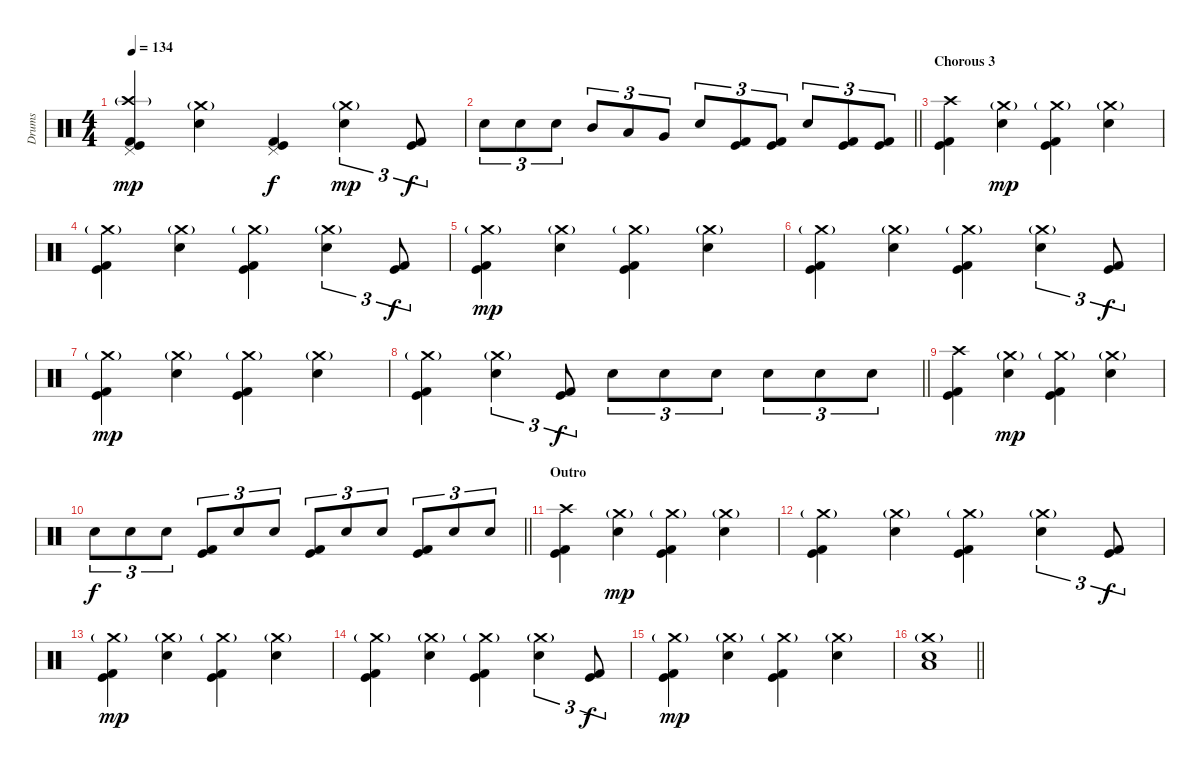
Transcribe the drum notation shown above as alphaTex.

\track ("Drums" "Drums") {instrument percussion}
\staff {score}
\articulation defaults
\ts (4 4)
\tempo 134
\clef neutral
\ks c
("Pedal Hi-Hat (hit)" "Crash high (hit)"{g} "Kick (hit)" "Kick (hit) 2").4{dy mp} ("Crash medium (hit)"{g} "Electric Snare (hit)").4 ("Pedal Hi-Hat (hit)" "Kick (hit)" "Kick (hit) 2").4{dy f} ("Crash medium (hit)"{g} "Electric Snare (hit)").4{tu (3 2) dy mp} ("Kick (hit)" "Kick (hit) 2").8{tu (3 2) dy f} |
\barLineRight lightlight "Electric Snare (hit)".8{tu (3 2)} "Electric Snare (hit)".8{tu (3 2)} "Electric Snare (hit)".8{tu (3 2)} "Mid Tom (hit)".8{tu (3 2)} "Low Tom (hit)".8{tu (3 2)} "Very Low Tom (hit)".8{tu (3 2)} "Electric Snare (hit)".8{tu (3 2)}
("Kick (hit)" "Kick (hit) 2").8{tu (3 2)} ("Kick (hit)" "Kick (hit) 2").8{tu (3 2)} "Electric Snare (hit)".8{tu (3 2)} ("Kick (hit)" "Kick (hit) 2").8{tu (3 2)} ("Kick (hit)" "Kick (hit) 2").8{tu (3 2)} |
\section ("" "Chorous 3")
("Crash high (hit)" "Kick (hit)" "Kick (hit) 2").4 ("Crash medium (hit)"{g} "Electric Snare (hit)").4{dy mp} ("Crash medium (hit)"{g} "Kick (hit)" "Kick (hit) 2").4 ("Crash medium (hit)"{g} "Electric Snare (hit)").4 |
("Crash medium (hit)"{g} "Kick (hit)" "Kick (hit) 2").4 ("Crash medium (hit)"{g} "Electric Snare (hit)").4 ("Crash medium (hit)"{g} "Kick (hit)" "Kick (hit) 2").4 ("Crash medium (hit)"{g} "Electric Snare (hit)").4{tu (3 2)} ("Kick (hit)" "Kick (hit) 2").8{tu (3 2) dy f} |
("Crash medium (hit)"{g} "Kick (hit)" "Kick (hit) 2").4{dy mp} ("Crash medium (hit)"{g} "Electric Snare (hit)").4 ("Crash medium (hit)"{g} "Kick (hit)" "Kick (hit) 2").4 ("Crash medium (hit)"{g} "Electric Snare (hit)").4 |
("Crash medium (hit)"{g} "Kick (hit)" "Kick (hit) 2").4 ("Crash medium (hit)"{g} "Electric Snare (hit)").4 ("Crash medium (hit)"{g} "Kick (hit)" "Kick (hit) 2").4 ("Crash medium (hit)"{g} "Electric Snare (hit)").4{tu (3 2)} ("Kick (hit)" "Kick (hit) 2").8{tu (3 2) dy f} |
("Crash medium (hit)"{g} "Kick (hit)" "Kick (hit) 2").4{dy mp} ("Crash medium (hit)"{g} "Electric Snare (hit)").4 ("Crash medium (hit)"{g} "Kick (hit)" "Kick (hit) 2").4 ("Crash medium (hit)"{g} "Electric Snare (hit)").4 |
\barLineRight lightlight
("Crash medium (hit)"{g} "Kick (hit)" "Kick (hit) 2").4 ("Crash medium (hit)"{g} "Electric Snare (hit)").4{tu (3 2)} ("Kick (hit)" "Kick (hit) 2").8{tu (3 2) dy f} "Electric Snare (hit)".8{tu (3 2)} "Electric Snare (hit)".8{tu (3 2)} "Electric Snare (hit)".8{tu (3 2)} "Electric Snare (hit)".8{tu (3 2)} "Electric Snare (hit)".8{tu (3 2)} "Electric Snare (hit)".8{tu (3 2)} |
\section ("" "")
("Crash high (hit)" "Kick (hit)" "Kick (hit) 2").4 ("Crash medium (hit)"{g} "Electric Snare (hit)").4{dy mp} ("Crash medium (hit)"{g} "Kick (hit)" "Kick (hit) 2").4 ("Crash medium (hit)"{g} "Electric Snare (hit)").4 |
\barLineRight lightlight "Electric Snare (hit)".8{tu (3 2) dy f} "Electric Snare (hit)".8{tu (3 2)} "Electric Snare (hit)".8{tu (3 2)}
("Kick (hit)" "Kick (hit) 2").8{tu (3 2)} "Electric Snare (hit)".8{tu (3 2)} "Electric Snare (hit)".8{tu (3 2)} ("Kick (hit)" "Kick (hit) 2").8{tu (3 2)} "Electric Snare (hit)".8{tu (3 2)} "Electric Snare (hit)".8{tu (3 2)} ("Kick (hit)" "Kick (hit) 2").8{tu (3 2)} "Electric Snare (hit)".8{tu (3 2)} "Electric Snare (hit)".8{tu (3 2)} |
\section ("" "Outro")
("Crash high (hit)" "Kick (hit)" "Kick (hit) 2").4 ("Crash medium (hit)"{g} "Electric Snare (hit)").4{dy mp} ("Crash medium (hit)"{g} "Kick (hit)" "Kick (hit) 2").4 ("Crash medium (hit)"{g} "Electric Snare (hit)").4 |
("Crash medium (hit)"{g} "Kick (hit)" "Kick (hit) 2").4 ("Crash medium (hit)"{g} "Electric Snare (hit)").4 ("Crash medium (hit)"{g} "Kick (hit)" "Kick (hit) 2").4 ("Crash medium (hit)"{g} "Electric Snare (hit)").4{tu (3 2)} ("Kick (hit)" "Kick (hit) 2").8{tu (3 2) dy f} |
("Crash medium (hit)"{g} "Kick (hit)" "Kick (hit) 2").4{dy mp} ("Crash medium (hit)"{g} "Electric Snare (hit)").4 ("Crash medium (hit)"{g} "Kick (hit)" "Kick (hit) 2").4 ("Crash medium (hit)"{g} "Electric Snare (hit)").4 |
("Crash medium (hit)"{g} "Kick (hit)" "Kick (hit) 2").4 ("Crash medium (hit)"{g} "Electric Snare (hit)").4 ("Crash medium (hit)"{g} "Kick (hit)" "Kick (hit) 2").4 ("Crash medium (hit)"{g} "Electric Snare (hit)").4{tu (3 2)} ("Kick (hit)" "Kick (hit) 2").8{tu (3 2) dy f} |
("Crash medium (hit)"{g} "Kick (hit)" "Kick (hit) 2").4{dy mp} ("Crash medium (hit)"{g} "Electric Snare (hit)").4 ("Crash medium (hit)"{g} "Kick (hit)" "Kick (hit) 2").4 ("Crash medium (hit)"{g} "Electric Snare (hit)").4 |
\barLineRight lightlight
("Crash medium (hit)"{g} "Electric Snare (hit)" "Low Floor Tom (hit)").1
